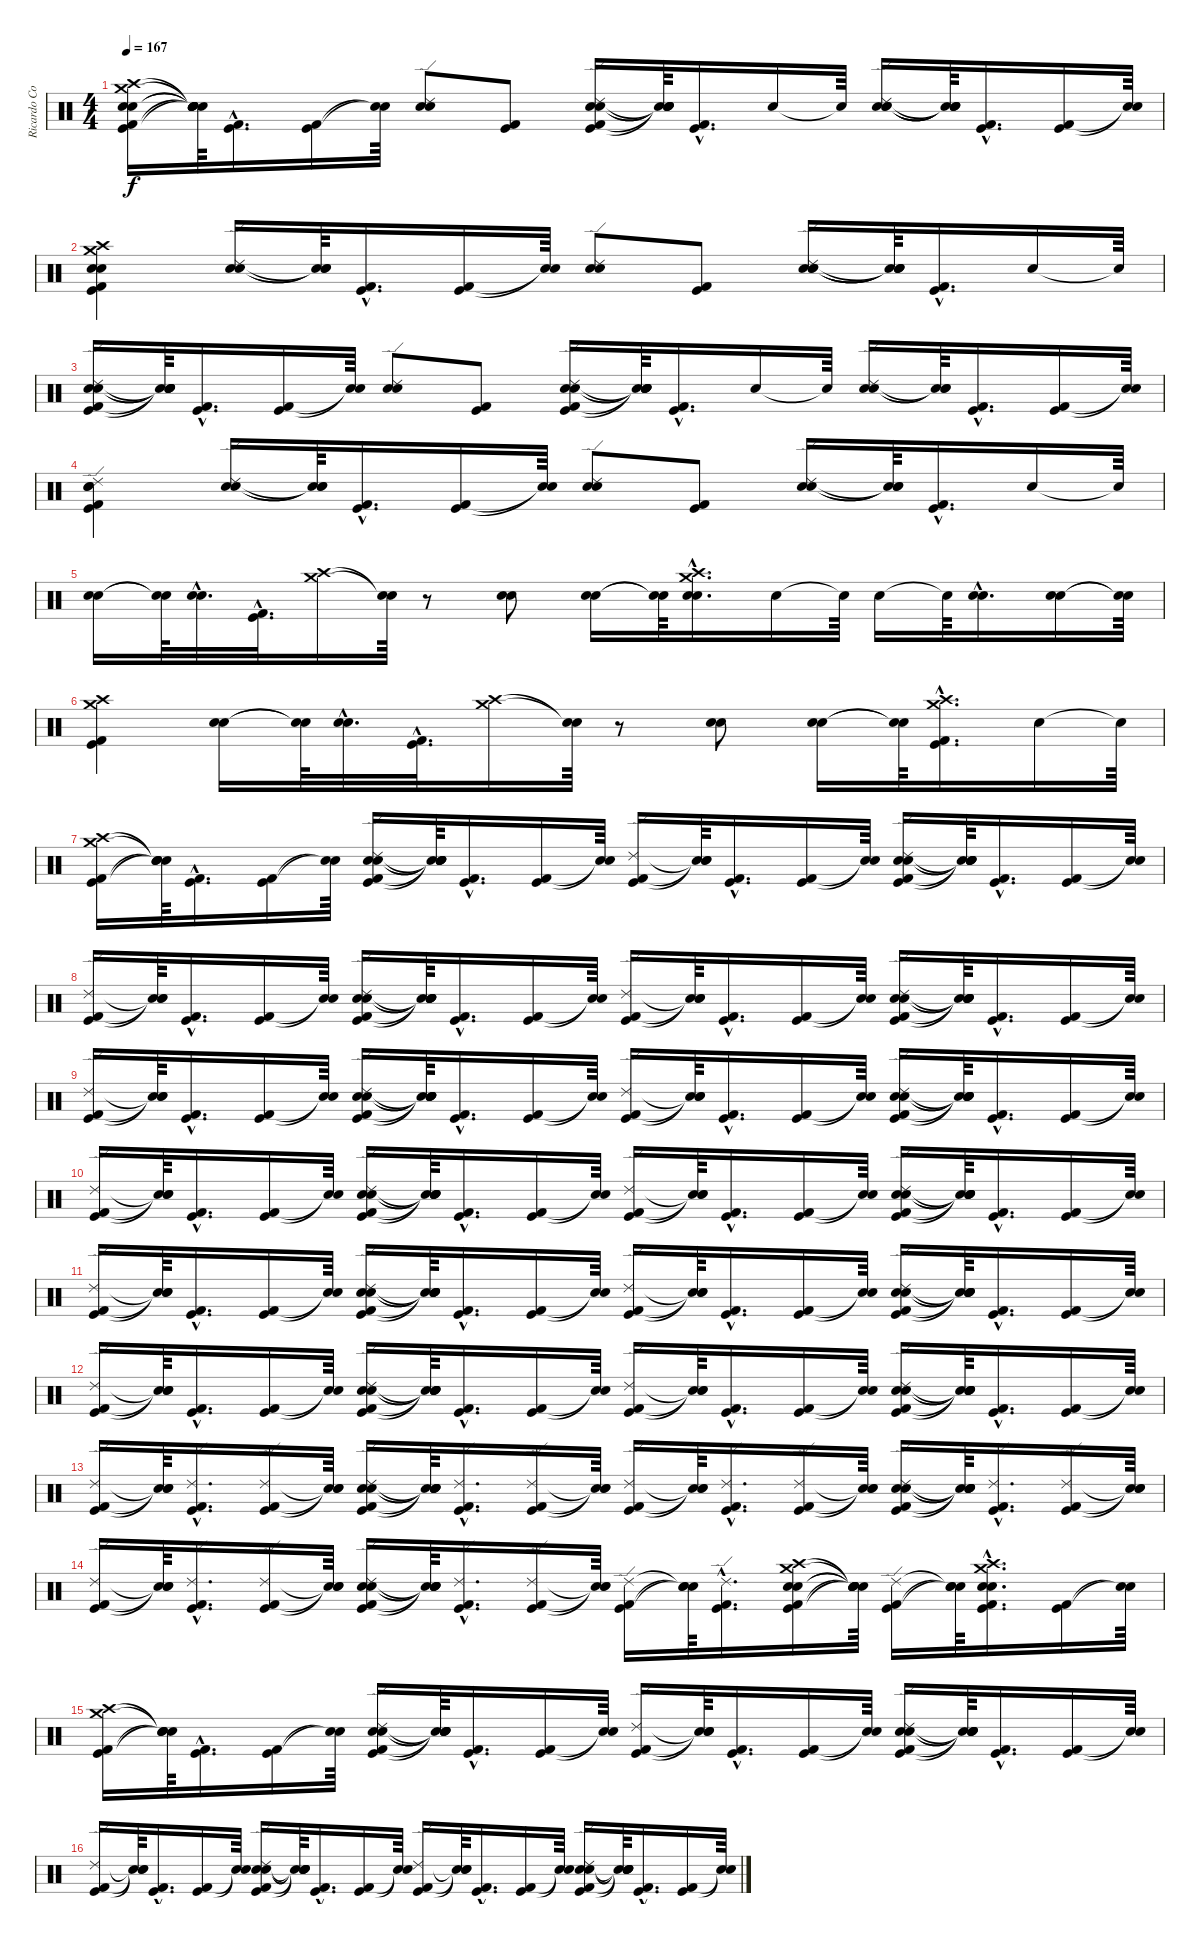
\track ("Ricardo Confessori" "Ricardo Co") {instrument percussion}
\staff {score}
\articulation defaults
\ts (4 4)
\tempo 167
\clef neutral
\ks c
("Crash high (hit)" "Crash medium (hit)" "Snare (hit) 2" "Electric Snare (hit)" "Kick (hit) 2" "Kick (hit)").16{dy f} ("Snare (hit)"{t} "Snare (hit)"{t} "Snare (hit)"{t} "Snare (hit)"{t} "Snare (hit)"{t} "Snare (hit)"{t}).64 ("Kick (hit) 2"{hac} "Kick (hit)"{hac}).16{d} ("Kick (hit) 2" "Kick (hit)").16 ("Snare (hit)"{t} "Snare (hit)"{t}).64 ("Ride (edge) 2" "Electric Snare (hit)" "Snare (hit) 2").8 ("Kick (hit) 2" "Kick (hit)").8 ("Ride (edge) 2" "Electric Snare (hit)" "Snare (hit) 2" "Kick (hit) 2" "Kick (hit)").16 ("Snare (hit)"{t} "Snare (hit)"{t} "Snare (hit)"{t} "Snare (hit)"{t} "Snare (hit)"{t}).64 ("Kick (hit) 2"{hac} "Kick (hit)"{hac}).16{d} "Snare (hit)".16 "Snare (hit)"{t}.64 ("Ride (edge) 2" "Snare (hit) 2" "Electric Snare (hit)" "Snare (hit)").16 ("Snare (hit)"{t} "Snare (hit)"{t} "Snare (hit)"{t} "Snare (hit)"{t}).64 ("Kick (hit) 2"{hac} "Kick (hit)"{hac}).16{d} ("Kick (hit) 2" "Kick (hit)").16 ("Snare (hit)"{t} "Snare (hit)"{t}).64 |
("Crash high (hit)" "Crash medium (hit)" "Electric Snare (hit)" "Snare (hit) 2" "Kick (hit) 2" "Kick (hit)").4 ("Ride (edge) 2" "Electric Snare (hit)" "Snare (hit) 2").16 ("Snare (hit)"{t} "Snare (hit)"{t} "Snare (hit)"{t}).64 ("Kick (hit) 2"{hac} "Kick (hit)"{hac}).16{d} ("Kick (hit)" "Kick (hit) 2").16 ("Snare (hit)"{t} "Snare (hit)"{t}).64 ("Ride (edge) 2" "Electric Snare (hit)" "Snare (hit) 2").8 ("Kick (hit) 2" "Kick (hit)").8 ("Ride (edge) 2" "Electric Snare (hit)" "Snare (hit) 2" "Snare (hit)").16 ("Snare (hit)"{t} "Snare (hit)"{t} "Snare (hit)"{t} "Snare (hit)"{t}).64 ("Kick (hit) 2"{hac} "Kick (hit)"{hac}).16{d} "Snare (hit)".16 "Snare (hit)"{t}.64 |
("Ride (edge) 2" "Electric Snare (hit)" "Snare (hit) 2" "Kick (hit) 2" "Kick (hit)").16 ("Snare (hit)"{t} "Snare (hit)"{t} "Snare (hit)"{t} "Snare (hit)"{t} "Snare (hit)"{t}).64 ("Kick (hit) 2"{hac} "Kick (hit)"{hac}).16{d} ("Kick (hit) 2" "Kick (hit)").16 ("Snare (hit)"{t} "Snare (hit)"{t}).64 ("Ride (edge) 2" "Electric Snare (hit)" "Snare (hit) 2").8 ("Kick (hit) 2" "Kick (hit)").8 ("Ride (edge) 2" "Electric Snare (hit)" "Snare (hit) 2" "Kick (hit) 2" "Kick (hit)").16 ("Snare (hit)"{t} "Snare (hit)"{t} "Snare (hit)"{t} "Snare (hit)"{t} "Snare (hit)"{t}).64 ("Kick (hit) 2"{hac} "Kick (hit)"{hac}).16{d} "Snare (hit)".16 "Snare (hit)"{t}.64 ("Ride (edge) 2" "Electric Snare (hit)" "Snare (hit) 2").16 ("Snare (hit)"{t} "Snare (hit)"{t} "Snare (hit)"{t}).64 ("Kick (hit) 2"{hac} "Kick (hit)"{hac}).16{d} ("Kick (hit) 2" "Kick (hit)").16 ("Snare (hit)"{t} "Snare (hit)"{t}).64 |
("Ride (edge) 2" "Electric Snare (hit)" "Snare (hit) 2" "Kick (hit) 2" "Kick (hit)").4 ("Ride (edge) 2" "Electric Snare (hit)" "Snare (hit) 2").16 ("Snare (hit)"{t} "Snare (hit)"{t} "Snare (hit)"{t}).64 ("Kick (hit) 2"{hac} "Kick (hit)"{hac}).16{d} ("Kick (hit) 2" "Kick (hit)").16 ("Snare (hit)"{t} "Snare (hit)"{t}).64 ("Ride (edge) 2" "Electric Snare (hit)" "Snare (hit) 2").8 ("Kick (hit) 2" "Kick (hit)").8 ("Ride (edge) 2" "Electric Snare (hit)" "Snare (hit) 2").16 ("Snare (hit)"{t} "Snare (hit)"{t} "Snare (hit)"{t}).64 ("Kick (hit) 2"{hac} "Kick (hit)"{hac}).16{d} "Snare (hit)".16 "Snare (hit)"{t}.64 |
("Electric Snare (hit)" "Snare (hit) 2").16 ("Snare (hit)"{t} "Snare (hit)"{t}).64 ("Electric Snare (hit)"{hac} "Snare (hit) 2"{hac}).32{d} ("Kick (hit) 2"{hac} "Kick (hit)"{hac}).32{d} ("Crash high (hit)" "Crash medium (hit)").16 ("Snare (hit)"{t} "Snare (hit)"{t}).64 r.8 ("Electric Snare (hit)" "Snare (hit) 2").8 ("Electric Snare (hit)" "Snare (hit) 2").16 ("Snare (hit)"{t} "Snare (hit)"{t}).64 ("Crash high (hit)"{hac} "Crash medium (hit)"{hac} "Electric Snare (hit)"{hac} "Snare (hit) 2"{hac}).16{d} "Snare (hit)".16 "Snare (hit)"{t}.64 "Snare (hit)".16 "Snare (hit)"{t}.64 ("Electric Snare (hit)"{hac} "Snare (hit) 2"{hac}).16{d} ("Electric Snare (hit)" "Snare (hit) 2").16 ("Snare (hit)"{t} "Snare (hit)"{t}).64 |
("Crash high (hit)" "Crash medium (hit)" "Kick (hit) 2" "Kick (hit)").4 ("Electric Snare (hit)" "Snare (hit) 2").16 ("Snare (hit)"{t} "Snare (hit)"{t}).64 ("Electric Snare (hit)"{hac} "Snare (hit) 2"{hac}).32{d} ("Kick (hit) 2"{hac} "Kick (hit)"{hac}).32{d} ("Crash high (hit)" "Crash medium (hit)").16 ("Snare (hit)"{t} "Snare (hit)"{t}).64 r.8 ("Electric Snare (hit)" "Snare (hit) 2").8 ("Electric Snare (hit)" "Snare (hit) 2").16 ("Snare (hit)"{t} "Snare (hit)"{t}).64 ("Crash medium (hit)"{hac} "Crash high (hit)"{hac} "Kick (hit) 2"{hac} "Kick (hit)"{hac}).16{d} "Snare (hit)".16 "Snare (hit)"{t}.64 |
("Crash high (hit)" "Crash medium (hit)" "Kick (hit) 2" "Kick (hit)").16 ("Snare (hit)"{t} "Snare (hit)"{t} "Snare (hit)"{t} "Snare (hit)"{t}).64 ("Kick (hit) 2"{hac} "Kick (hit)"{hac}).16{d} ("Kick (hit) 2" "Kick (hit)").16 ("Snare (hit)"{t} "Snare (hit)"{t}).64 ("Ride (edge) 2" "Electric Snare (hit)" "Snare (hit) 2" "Kick (hit) 2" "Kick (hit)").16 ("Snare (hit)"{t} "Snare (hit)"{t} "Snare (hit)"{t} "Snare (hit)"{t} "Snare (hit)"{t}).64 ("Kick (hit) 2"{hac} "Kick (hit)"{hac}).16{d} ("Kick (hit) 2" "Kick (hit)").16 ("Snare (hit)"{t} "Snare (hit)"{t}).64 ("Ride (edge) 2" "Kick (hit) 2" "Kick (hit)").16 ("Snare (hit)"{t} "Snare (hit)"{t} "Snare (hit)"{t}).64 ("Kick (hit) 2"{hac} "Kick (hit)"{hac}).16{d} ("Kick (hit) 2" "Kick (hit)").16 ("Snare (hit)"{t} "Snare (hit)"{t}).64 ("Ride (edge) 2" "Electric Snare (hit)" "Snare (hit) 2" "Kick (hit) 2" "Kick (hit)").16 ("Snare (hit)"{t} "Snare (hit)"{t} "Snare (hit)"{t} "Snare (hit)"{t} "Snare (hit)"{t}).64 ("Kick (hit) 2"{hac} "Kick (hit)"{hac}).16{d} ("Kick (hit) 2" "Kick (hit)").16 ("Snare (hit)"{t} "Snare (hit)"{t}).64 |
("Ride (edge) 2" "Kick (hit) 2" "Kick (hit)").16 ("Snare (hit)"{t} "Snare (hit)"{t} "Snare (hit)"{t}).64 ("Kick (hit) 2"{hac} "Kick (hit)"{hac}).16{d} ("Kick (hit) 2" "Kick (hit)").16 ("Snare (hit)"{t} "Snare (hit)"{t}).64 ("Ride (edge) 2" "Electric Snare (hit)" "Snare (hit) 2" "Kick (hit) 2" "Kick (hit)").16 ("Snare (hit)"{t} "Snare (hit)"{t} "Snare (hit)"{t} "Snare (hit)"{t} "Snare (hit)"{t}).64 ("Kick (hit) 2"{hac} "Kick (hit)"{hac}).16{d} ("Kick (hit) 2" "Kick (hit)").16 ("Snare (hit)"{t} "Snare (hit)"{t}).64 ("Ride (edge) 2" "Kick (hit) 2" "Kick (hit)").16 ("Snare (hit)"{t} "Snare (hit)"{t} "Snare (hit)"{t}).64 ("Kick (hit) 2"{hac} "Kick (hit)"{hac}).16{d} ("Kick (hit) 2" "Kick (hit)").16 ("Snare (hit)"{t} "Snare (hit)"{t}).64 ("Ride (edge) 2" "Electric Snare (hit)" "Snare (hit) 2" "Kick (hit) 2" "Kick (hit)").16 ("Snare (hit)"{t} "Snare (hit)"{t} "Snare (hit)"{t} "Snare (hit)"{t} "Snare (hit)"{t}).64 ("Kick (hit) 2"{hac} "Kick (hit)"{hac}).16{d} ("Kick (hit) 2" "Kick (hit)").16 ("Snare (hit)"{t} "Snare (hit)"{t}).64 |
("Ride (edge) 2" "Kick (hit) 2" "Kick (hit)").16 ("Snare (hit)"{t} "Snare (hit)"{t} "Snare (hit)"{t}).64 ("Kick (hit) 2"{hac} "Kick (hit)"{hac}).16{d} ("Kick (hit) 2" "Kick (hit)").16 ("Snare (hit)"{t} "Snare (hit)"{t}).64 ("Ride (edge) 2" "Electric Snare (hit)" "Snare (hit) 2" "Kick (hit) 2" "Kick (hit)").16 ("Snare (hit)"{t} "Snare (hit)"{t} "Snare (hit)"{t} "Snare (hit)"{t} "Snare (hit)"{t}).64 ("Kick (hit) 2"{hac} "Kick (hit)"{hac}).16{d} ("Kick (hit) 2" "Kick (hit)").16 ("Snare (hit)"{t} "Snare (hit)"{t}).64 ("Ride (edge) 2" "Kick (hit) 2" "Kick (hit)").16 ("Snare (hit)"{t} "Snare (hit)"{t} "Snare (hit)"{t}).64 ("Kick (hit) 2"{hac} "Kick (hit)"{hac}).16{d} ("Kick (hit) 2" "Kick (hit)").16 ("Snare (hit)"{t} "Snare (hit)"{t}).64 ("Ride (edge) 2" "Electric Snare (hit)" "Snare (hit) 2" "Kick (hit) 2" "Kick (hit)").16 ("Snare (hit)"{t} "Snare (hit)"{t} "Snare (hit)"{t} "Snare (hit)"{t} "Snare (hit)"{t}).64 ("Kick (hit) 2"{hac} "Kick (hit)"{hac}).16{d} ("Kick (hit) 2" "Kick (hit)").16 ("Snare (hit)"{t} "Snare (hit)"{t}).64 |
("Ride (edge) 2" "Kick (hit) 2" "Kick (hit)").16 ("Snare (hit)"{t} "Snare (hit)"{t} "Snare (hit)"{t}).64 ("Kick (hit) 2"{hac} "Kick (hit)"{hac}).16{d} ("Kick (hit) 2" "Kick (hit)").16 ("Snare (hit)"{t} "Snare (hit)"{t}).64 ("Ride (edge) 2" "Electric Snare (hit)" "Snare (hit) 2" "Kick (hit) 2" "Kick (hit)").16 ("Snare (hit)"{t} "Snare (hit)"{t} "Snare (hit)"{t} "Snare (hit)"{t} "Snare (hit)"{t}).64 ("Kick (hit) 2"{hac} "Kick (hit)"{hac}).16{d} ("Kick (hit) 2" "Kick (hit)").16 ("Snare (hit)"{t} "Snare (hit)"{t}).64 ("Ride (edge) 2" "Kick (hit) 2" "Kick (hit)").16 ("Snare (hit)"{t} "Snare (hit)"{t} "Snare (hit)"{t}).64 ("Kick (hit) 2"{hac} "Kick (hit)"{hac}).16{d} ("Kick (hit) 2" "Kick (hit)").16 ("Snare (hit)"{t} "Snare (hit)"{t}).64 ("Ride (edge) 2" "Electric Snare (hit)" "Snare (hit) 2" "Kick (hit) 2" "Kick (hit)").16 ("Snare (hit)"{t} "Snare (hit)"{t} "Snare (hit)"{t} "Snare (hit)"{t} "Snare (hit)"{t}).64 ("Kick (hit) 2"{hac} "Kick (hit)"{hac}).16{d} ("Kick (hit) 2" "Kick (hit)").16 ("Snare (hit)"{t} "Snare (hit)"{t}).64 |
("Ride (edge) 2" "Kick (hit) 2" "Kick (hit)").16 ("Snare (hit)"{t} "Snare (hit)"{t} "Snare (hit)"{t}).64 ("Kick (hit) 2"{hac} "Kick (hit)"{hac}).16{d} ("Kick (hit) 2" "Kick (hit)").16 ("Snare (hit)"{t} "Snare (hit)"{t}).64 ("Ride (edge) 2" "Electric Snare (hit)" "Snare (hit) 2" "Kick (hit) 2" "Kick (hit)").16 ("Snare (hit)"{t} "Snare (hit)"{t} "Snare (hit)"{t} "Snare (hit)"{t} "Snare (hit)"{t}).64 ("Kick (hit) 2"{hac} "Kick (hit)"{hac}).16{d} ("Kick (hit) 2" "Kick (hit)").16 ("Snare (hit)"{t} "Snare (hit)"{t}).64 ("Ride (edge) 2" "Kick (hit) 2" "Kick (hit)").16 ("Snare (hit)"{t} "Snare (hit)"{t} "Snare (hit)"{t}).64 ("Kick (hit) 2"{hac} "Kick (hit)"{hac}).16{d} ("Kick (hit) 2" "Kick (hit)").16 ("Snare (hit)"{t} "Snare (hit)"{t}).64 ("Ride (edge) 2" "Electric Snare (hit)" "Snare (hit) 2" "Kick (hit) 2" "Kick (hit)").16 ("Snare (hit)"{t} "Snare (hit)"{t} "Snare (hit)"{t} "Snare (hit)"{t} "Snare (hit)"{t}).64 ("Kick (hit) 2"{hac} "Kick (hit)"{hac}).16{d} ("Kick (hit) 2" "Kick (hit)").16 ("Snare (hit)"{t} "Snare (hit)"{t}).64 |
("Ride (edge) 2" "Kick (hit) 2" "Kick (hit)").16 ("Snare (hit)"{t} "Snare (hit)"{t} "Snare (hit)"{t}).64 ("Kick (hit) 2"{hac} "Kick (hit)"{hac}).16{d} ("Kick (hit) 2" "Kick (hit)").16 ("Snare (hit)"{t} "Snare (hit)"{t}).64 ("Ride (edge) 2" "Electric Snare (hit)" "Snare (hit) 2" "Kick (hit) 2" "Kick (hit)").16 ("Snare (hit)"{t} "Snare (hit)"{t} "Snare (hit)"{t} "Snare (hit)"{t} "Snare (hit)"{t}).64 ("Kick (hit) 2"{hac} "Kick (hit)"{hac}).16{d} ("Kick (hit) 2" "Kick (hit)").16 ("Snare (hit)"{t} "Snare (hit)"{t}).64 ("Ride (edge) 2" "Kick (hit) 2" "Kick (hit)").16 ("Snare (hit)"{t} "Snare (hit)"{t} "Snare (hit)"{t}).64 ("Kick (hit) 2"{hac} "Kick (hit)"{hac}).16{d} ("Kick (hit) 2" "Kick (hit)").16 ("Snare (hit)"{t} "Snare (hit)"{t}).64 ("Ride (edge) 2" "Electric Snare (hit)" "Snare (hit) 2" "Kick (hit) 2" "Kick (hit)").16 ("Snare (hit)"{t} "Snare (hit)"{t} "Snare (hit)"{t} "Snare (hit)"{t} "Snare (hit)"{t}).64 ("Kick (hit) 2"{hac} "Kick (hit)"{hac}).16{d} ("Kick (hit) 2" "Kick (hit)").16 ("Snare (hit)"{t} "Snare (hit)"{t}).64 |
("Ride (edge) 2" "Kick (hit) 2" "Kick (hit)").16 ("Snare (hit)"{t} "Snare (hit)"{t} "Snare (hit)"{t}).64 ("Ride (edge) 2"{hac} "Kick (hit) 2"{hac} "Kick (hit)"{hac}).16{d} ("Ride (edge) 2" "Kick (hit) 2" "Kick (hit)").16 ("Snare (hit)"{t} "Snare (hit)"{t} "Snare (hit)"{t}).64 ("Ride (edge) 2" "Electric Snare (hit)" "Snare (hit) 2" "Kick (hit) 2" "Kick (hit)").16 ("Snare (hit)"{t} "Snare (hit)"{t} "Snare (hit)"{t} "Snare (hit)"{t} "Snare (hit)"{t}).64 ("Ride (edge) 2"{hac} "Kick (hit) 2"{hac} "Kick (hit)"{hac}).16{d} ("Ride (edge) 2" "Kick (hit) 2" "Kick (hit)").16 ("Snare (hit)"{t} "Snare (hit)"{t} "Snare (hit)"{t}).64 ("Ride (edge) 2" "Kick (hit) 2" "Kick (hit)").16 ("Snare (hit)"{t} "Snare (hit)"{t} "Snare (hit)"{t}).64 ("Ride (edge) 2"{hac} "Kick (hit) 2"{hac} "Kick (hit)"{hac}).16{d} ("Ride (edge) 2" "Kick (hit) 2" "Kick (hit)").16 ("Snare (hit)"{t} "Snare (hit)"{t} "Snare (hit)"{t}).64 ("Ride (edge) 2" "Electric Snare (hit)" "Snare (hit) 2" "Kick (hit) 2" "Kick (hit)").16 ("Snare (hit)"{t} "Snare (hit)"{t} "Snare (hit)"{t} "Snare (hit)"{t} "Snare (hit)"{t}).64 ("Ride (edge) 2"{hac} "Kick (hit) 2"{hac} "Kick (hit)"{hac}).16{d} ("Ride (edge) 2" "Kick (hit) 2" "Kick (hit)").16 ("Snare (hit)"{t} "Snare (hit)"{t} "Snare (hit)"{t}).64 |
("Ride (edge) 2" "Kick (hit) 2" "Kick (hit)").16 ("Snare (hit)"{t} "Snare (hit)"{t} "Snare (hit)"{t}).64 ("Ride (edge) 2"{hac} "Kick (hit) 2"{hac} "Kick (hit)"{hac}).16{d} ("Ride (edge) 2" "Kick (hit) 2" "Kick (hit)").16 ("Snare (hit)"{t} "Snare (hit)"{t} "Snare (hit)"{t}).64 ("Ride (edge) 2" "Electric Snare (hit)" "Snare (hit) 2" "Kick (hit) 2" "Kick (hit)").16 ("Snare (hit)"{t} "Snare (hit)"{t} "Snare (hit)"{t} "Snare (hit)"{t} "Snare (hit)"{t}).64 ("Ride (edge) 2"{hac} "Kick (hit) 2"{hac} "Kick (hit)"{hac}).16{d} ("Ride (edge) 2" "Kick (hit) 2" "Kick (hit)").16 ("Snare (hit)"{t} "Snare (hit)"{t} "Snare (hit)"{t}).64 ("Ride (edge) 2" "Kick (hit) 2" "Kick (hit)").16 ("Snare (hit)"{t} "Snare (hit)"{t} "Snare (hit)"{t}).64 ("Ride (edge) 2"{hac} "Kick (hit) 2"{hac} "Kick (hit)"{hac}).16{d} ("Electric Snare (hit)" "Snare (hit) 2" "Crash high (hit)" "Crash medium (hit)" "Kick (hit) 2" "Kick (hit)").16 ("Snare (hit)"{t} "Snare (hit)"{t} "Snare (hit)"{t} "Snare (hit)"{t} "Snare (hit)"{t} "Snare (hit)"{t}).64 ("Ride (edge) 2" "Kick (hit) 2" "Kick (hit)").16 ("Snare (hit)"{t} "Snare (hit)"{t} "Snare (hit)"{t}).64 ("Crash high (hit)"{hac} "Crash medium (hit)"{hac} "Snare (hit) 2"{hac} "Electric Snare (hit)"{hac} "Kick (hit) 2"{hac} "Kick (hit)"{hac}).16{d} ("Kick (hit) 2" "Kick (hit)").16 ("Snare (hit)"{t} "Snare (hit)"{t}).64 |
("Crash high (hit)" "Crash medium (hit)" "Kick (hit) 2" "Kick (hit)").16 ("Snare (hit)"{t} "Snare (hit)"{t} "Snare (hit)"{t} "Snare (hit)"{t}).64 ("Kick (hit) 2"{hac} "Kick (hit)"{hac}).16{d} ("Kick (hit) 2" "Kick (hit)").16 ("Snare (hit)"{t} "Snare (hit)"{t}).64 ("Ride (edge) 2" "Electric Snare (hit)" "Snare (hit) 2" "Kick (hit) 2" "Kick (hit)").16 ("Snare (hit)"{t} "Snare (hit)"{t} "Snare (hit)"{t} "Snare (hit)"{t} "Snare (hit)"{t}).64 ("Kick (hit) 2"{hac} "Kick (hit)"{hac}).16{d} ("Kick (hit) 2" "Kick (hit)").16 ("Snare (hit)"{t} "Snare (hit)"{t}).64 ("Ride (edge) 2" "Kick (hit) 2" "Kick (hit)").16 ("Snare (hit)"{t} "Snare (hit)"{t} "Snare (hit)"{t}).64 ("Kick (hit) 2"{hac} "Kick (hit)"{hac}).16{d} ("Kick (hit) 2" "Kick (hit)").16 ("Snare (hit)"{t} "Snare (hit)"{t}).64 ("Ride (edge) 2" "Electric Snare (hit)" "Snare (hit) 2" "Kick (hit) 2" "Kick (hit)").16 ("Snare (hit)"{t} "Snare (hit)"{t} "Snare (hit)"{t} "Snare (hit)"{t} "Snare (hit)"{t}).64 ("Kick (hit) 2"{hac} "Kick (hit)"{hac}).16{d} ("Kick (hit) 2" "Kick (hit)").16 ("Snare (hit)"{t} "Snare (hit)"{t}).64 |
("Ride (edge) 2" "Kick (hit) 2" "Kick (hit)").16 ("Snare (hit)"{t} "Snare (hit)"{t} "Snare (hit)"{t}).64 ("Kick (hit) 2"{hac} "Kick (hit)"{hac}).16{d} ("Kick (hit) 2" "Kick (hit)").16 ("Snare (hit)"{t} "Snare (hit)"{t}).64 ("Ride (edge) 2" "Electric Snare (hit)" "Snare (hit) 2" "Kick (hit) 2" "Kick (hit)").16 ("Snare (hit)"{t} "Snare (hit)"{t} "Snare (hit)"{t} "Snare (hit)"{t} "Snare (hit)"{t}).64 ("Kick (hit) 2"{hac} "Kick (hit)"{hac}).16{d} ("Kick (hit) 2" "Kick (hit)").16 ("Snare (hit)"{t} "Snare (hit)"{t}).64 ("Ride (edge) 2" "Kick (hit) 2" "Kick (hit)").16 ("Snare (hit)"{t} "Snare (hit)"{t} "Snare (hit)"{t}).64 ("Kick (hit) 2"{hac} "Kick (hit)"{hac}).16{d} ("Kick (hit) 2" "Kick (hit)").16 ("Snare (hit)"{t} "Snare (hit)"{t}).64 ("Ride (edge) 2" "Electric Snare (hit)" "Snare (hit) 2" "Kick (hit) 2" "Kick (hit)").16 ("Snare (hit)"{t} "Snare (hit)"{t} "Snare (hit)"{t} "Snare (hit)"{t} "Snare (hit)"{t}).64 ("Kick (hit) 2"{hac} "Kick (hit)"{hac}).16{d} ("Kick (hit) 2" "Kick (hit)").16 ("Snare (hit)"{t} "Snare (hit)"{t}).64
